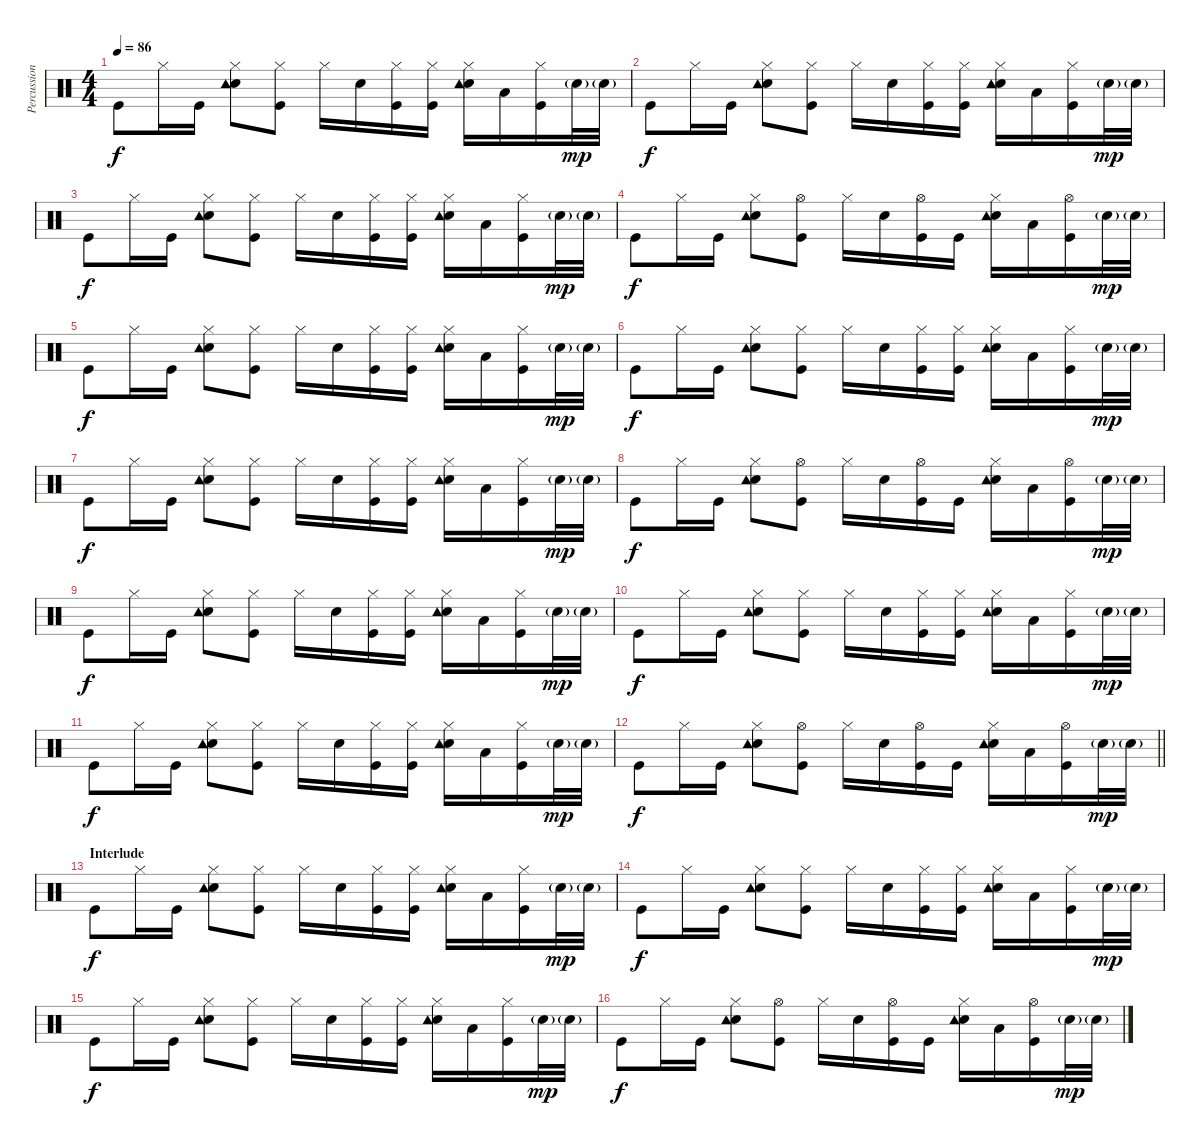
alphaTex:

\track ("Percussion" "Percussion") {instrument percussion}
\staff {score}
\articulation defaults
\ts (4 4)
\tempo 86
\clef neutral
\ks c "Kick (hit)".8{dy f} "Hi-Hat (closed)".16 "Kick (hit)".16
("Snare (hit) 2" "Hi-Hat (closed)" "Tambourine (hit)").8 ("Hi-Hat (closed)" "Kick (hit)").8 "Hi-Hat (closed)".16 "Snare (hit) 2".16 ("Kick (hit)" "Hi-Hat (closed)").16 ("Kick (hit)" "Hi-Hat (closed)").16 ("Snare (hit) 2" "Hi-Hat (closed)" "Tambourine (hit)").16 "Low Tom (hit)".16 ("Hi-Hat (closed)" "Kick (hit)").16 "Snare (hit) 2"{g}.32{dy mp} "Snare (hit) 2"{g}.32 |
"Kick (hit)".8{dy f} "Hi-Hat (closed)".16 "Kick (hit)".16 ("Snare (hit) 2" "Hi-Hat (closed)" "Tambourine (hit)").8 ("Hi-Hat (closed)" "Kick (hit)").8 "Hi-Hat (closed)".16 "Snare (hit) 2".16 ("Kick (hit)" "Hi-Hat (closed)").16 ("Kick (hit)" "Hi-Hat (closed)").16 ("Snare (hit) 2" "Hi-Hat (closed)" "Tambourine (hit)").16 "Low Tom (hit)".16 ("Hi-Hat (closed)" "Kick (hit)").16 "Snare (hit) 2"{g}.32{dy mp} "Snare (hit) 2"{g}.32 |
"Kick (hit)".8{dy f} "Hi-Hat (closed)".16 "Kick (hit)".16 ("Snare (hit) 2" "Hi-Hat (closed)" "Tambourine (hit)").8 ("Hi-Hat (closed)" "Kick (hit)").8 "Hi-Hat (closed)".16 "Snare (hit) 2".16 ("Kick (hit)" "Hi-Hat (closed)").16 ("Kick (hit)" "Hi-Hat (closed)").16 ("Snare (hit) 2" "Hi-Hat (closed)" "Tambourine (hit)").16 "Low Tom (hit)".16 ("Hi-Hat (closed)" "Kick (hit)").16 "Snare (hit) 2"{g}.32{dy mp} "Snare (hit) 2"{g}.32 |
"Kick (hit)".8{dy f} "Hi-Hat (closed)".16 "Kick (hit)".16 ("Snare (hit) 2" "Hi-Hat (closed)" "Tambourine (hit)").8 ("Hi-Hat (open)" "Kick (hit)").8 "Hi-Hat (closed)".16 "Snare (hit) 2".16 ("Kick (hit)" "Hi-Hat (open)").16 "Kick (hit)".16 ("Snare (hit) 2" "Tambourine (hit)" "Hi-Hat (closed)").16 "Low Tom (hit)".16 ("Hi-Hat (open)" "Kick (hit)").16 "Snare (hit) 2"{g}.32{dy mp} "Snare (hit) 2"{g}.32 |
"Kick (hit)".8{dy f} "Hi-Hat (closed)".16 "Kick (hit)".16 ("Snare (hit) 2" "Hi-Hat (closed)" "Tambourine (hit)").8 ("Hi-Hat (closed)" "Kick (hit)").8 "Hi-Hat (closed)".16 "Snare (hit) 2".16 ("Kick (hit)" "Hi-Hat (closed)").16 ("Kick (hit)" "Hi-Hat (closed)").16 ("Snare (hit) 2" "Hi-Hat (closed)" "Tambourine (hit)").16 "Low Tom (hit)".16 ("Hi-Hat (closed)" "Kick (hit)").16 "Snare (hit) 2"{g}.32{dy mp} "Snare (hit) 2"{g}.32 |
"Kick (hit)".8{dy f} "Hi-Hat (closed)".16 "Kick (hit)".16 ("Snare (hit) 2" "Hi-Hat (closed)" "Tambourine (hit)").8 ("Hi-Hat (closed)" "Kick (hit)").8 "Hi-Hat (closed)".16 "Snare (hit) 2".16 ("Kick (hit)" "Hi-Hat (closed)").16 ("Kick (hit)" "Hi-Hat (closed)").16 ("Snare (hit) 2" "Hi-Hat (closed)" "Tambourine (hit)").16 "Low Tom (hit)".16 ("Hi-Hat (closed)" "Kick (hit)").16 "Snare (hit) 2"{g}.32{dy mp} "Snare (hit) 2"{g}.32 |
"Kick (hit)".8{dy f} "Hi-Hat (closed)".16 "Kick (hit)".16 ("Snare (hit) 2" "Hi-Hat (closed)" "Tambourine (hit)").8 ("Hi-Hat (closed)" "Kick (hit)").8 "Hi-Hat (closed)".16 "Snare (hit) 2".16 ("Kick (hit)" "Hi-Hat (closed)").16 ("Kick (hit)" "Hi-Hat (closed)").16 ("Snare (hit) 2" "Hi-Hat (closed)" "Tambourine (hit)").16 "Low Tom (hit)".16 ("Hi-Hat (closed)" "Kick (hit)").16 "Snare (hit) 2"{g}.32{dy mp} "Snare (hit) 2"{g}.32 |
"Kick (hit)".8{dy f} "Hi-Hat (closed)".16 "Kick (hit)".16 ("Snare (hit) 2" "Hi-Hat (closed)" "Tambourine (hit)").8 ("Hi-Hat (open)" "Kick (hit)").8 "Hi-Hat (closed)".16 "Snare (hit) 2".16 ("Kick (hit)" "Hi-Hat (open)").16 "Kick (hit)".16 ("Snare (hit) 2" "Tambourine (hit)" "Hi-Hat (closed)").16 "Low Tom (hit)".16 ("Hi-Hat (open)" "Kick (hit)").16 "Snare (hit) 2"{g}.32{dy mp} "Snare (hit) 2"{g}.32 |
"Kick (hit)".8{dy f} "Hi-Hat (closed)".16 "Kick (hit)".16 ("Snare (hit) 2" "Hi-Hat (closed)" "Tambourine (hit)").8 ("Hi-Hat (closed)" "Kick (hit)").8 "Hi-Hat (closed)".16 "Snare (hit) 2".16 ("Kick (hit)" "Hi-Hat (closed)").16 ("Kick (hit)" "Hi-Hat (closed)").16 ("Snare (hit) 2" "Hi-Hat (closed)" "Tambourine (hit)").16 "Low Tom (hit)".16 ("Hi-Hat (closed)" "Kick (hit)").16 "Snare (hit) 2"{g}.32{dy mp} "Snare (hit) 2"{g}.32 |
"Kick (hit)".8{dy f} "Hi-Hat (closed)".16 "Kick (hit)".16 ("Snare (hit) 2" "Hi-Hat (closed)" "Tambourine (hit)").8 ("Hi-Hat (closed)" "Kick (hit)").8 "Hi-Hat (closed)".16 "Snare (hit) 2".16 ("Kick (hit)" "Hi-Hat (closed)").16 ("Kick (hit)" "Hi-Hat (closed)").16 ("Snare (hit) 2" "Hi-Hat (closed)" "Tambourine (hit)").16 "Low Tom (hit)".16 ("Hi-Hat (closed)" "Kick (hit)").16 "Snare (hit) 2"{g}.32{dy mp} "Snare (hit) 2"{g}.32 |
"Kick (hit)".8{dy f} "Hi-Hat (closed)".16 "Kick (hit)".16 ("Snare (hit) 2" "Hi-Hat (closed)" "Tambourine (hit)").8 ("Hi-Hat (closed)" "Kick (hit)").8 "Hi-Hat (closed)".16 "Snare (hit) 2".16 ("Kick (hit)" "Hi-Hat (closed)").16 ("Kick (hit)" "Hi-Hat (closed)").16 ("Snare (hit) 2" "Hi-Hat (closed)" "Tambourine (hit)").16 "Low Tom (hit)".16 ("Hi-Hat (closed)" "Kick (hit)").16 "Snare (hit) 2"{g}.32{dy mp} "Snare (hit) 2"{g}.32 |
\barLineRight lightlight "Kick (hit)".8{dy f} "Hi-Hat (closed)".16 "Kick (hit)".16
("Snare (hit) 2" "Hi-Hat (closed)" "Tambourine (hit)").8 ("Hi-Hat (open)" "Kick (hit)").8 "Hi-Hat (closed)".16 "Snare (hit) 2".16 ("Kick (hit)" "Hi-Hat (open)").16 "Kick (hit)".16 ("Snare (hit) 2" "Tambourine (hit)" "Hi-Hat (closed)").16 "Low Tom (hit)".16 ("Hi-Hat (open)" "Kick (hit)").16 "Snare (hit) 2"{g}.32{dy mp} "Snare (hit) 2"{g}.32 |
\section ("" "Interlude")
"Kick (hit)".8{dy f} "Hi-Hat (closed)".16 "Kick (hit)".16 ("Snare (hit) 2" "Hi-Hat (closed)" "Tambourine (hit)").8 ("Hi-Hat (closed)" "Kick (hit)").8 "Hi-Hat (closed)".16 "Snare (hit) 2".16 ("Kick (hit)" "Hi-Hat (closed)").16 ("Kick (hit)" "Hi-Hat (closed)").16 ("Snare (hit) 2" "Hi-Hat (closed)" "Tambourine (hit)").16 "Low Tom (hit)".16 ("Hi-Hat (closed)" "Kick (hit)").16 "Snare (hit) 2"{g}.32{dy mp} "Snare (hit) 2"{g}.32 |
"Kick (hit)".8{dy f} "Hi-Hat (closed)".16 "Kick (hit)".16 ("Snare (hit) 2" "Hi-Hat (closed)" "Tambourine (hit)").8 ("Hi-Hat (closed)" "Kick (hit)").8 "Hi-Hat (closed)".16 "Snare (hit) 2".16 ("Kick (hit)" "Hi-Hat (closed)").16 ("Kick (hit)" "Hi-Hat (closed)").16 ("Snare (hit) 2" "Hi-Hat (closed)" "Tambourine (hit)").16 "Low Tom (hit)".16 ("Hi-Hat (closed)" "Kick (hit)").16 "Snare (hit) 2"{g}.32{dy mp} "Snare (hit) 2"{g}.32 |
"Kick (hit)".8{dy f} "Hi-Hat (closed)".16 "Kick (hit)".16 ("Snare (hit) 2" "Hi-Hat (closed)" "Tambourine (hit)").8 ("Hi-Hat (closed)" "Kick (hit)").8 "Hi-Hat (closed)".16 "Snare (hit) 2".16 ("Kick (hit)" "Hi-Hat (closed)").16 ("Kick (hit)" "Hi-Hat (closed)").16 ("Snare (hit) 2" "Hi-Hat (closed)" "Tambourine (hit)").16 "Low Tom (hit)".16 ("Hi-Hat (closed)" "Kick (hit)").16 "Snare (hit) 2"{g}.32{dy mp} "Snare (hit) 2"{g}.32 |
"Kick (hit)".8{dy f} "Hi-Hat (closed)".16 "Kick (hit)".16 ("Snare (hit) 2" "Hi-Hat (closed)" "Tambourine (hit)").8 ("Hi-Hat (open)" "Kick (hit)").8 "Hi-Hat (closed)".16 "Snare (hit) 2".16 ("Kick (hit)" "Hi-Hat (open)").16 "Kick (hit)".16 ("Snare (hit) 2" "Tambourine (hit)" "Hi-Hat (closed)").16 "Low Tom (hit)".16 ("Hi-Hat (open)" "Kick (hit)").16 "Snare (hit) 2"{g}.32{dy mp} "Snare (hit) 2"{g}.32
